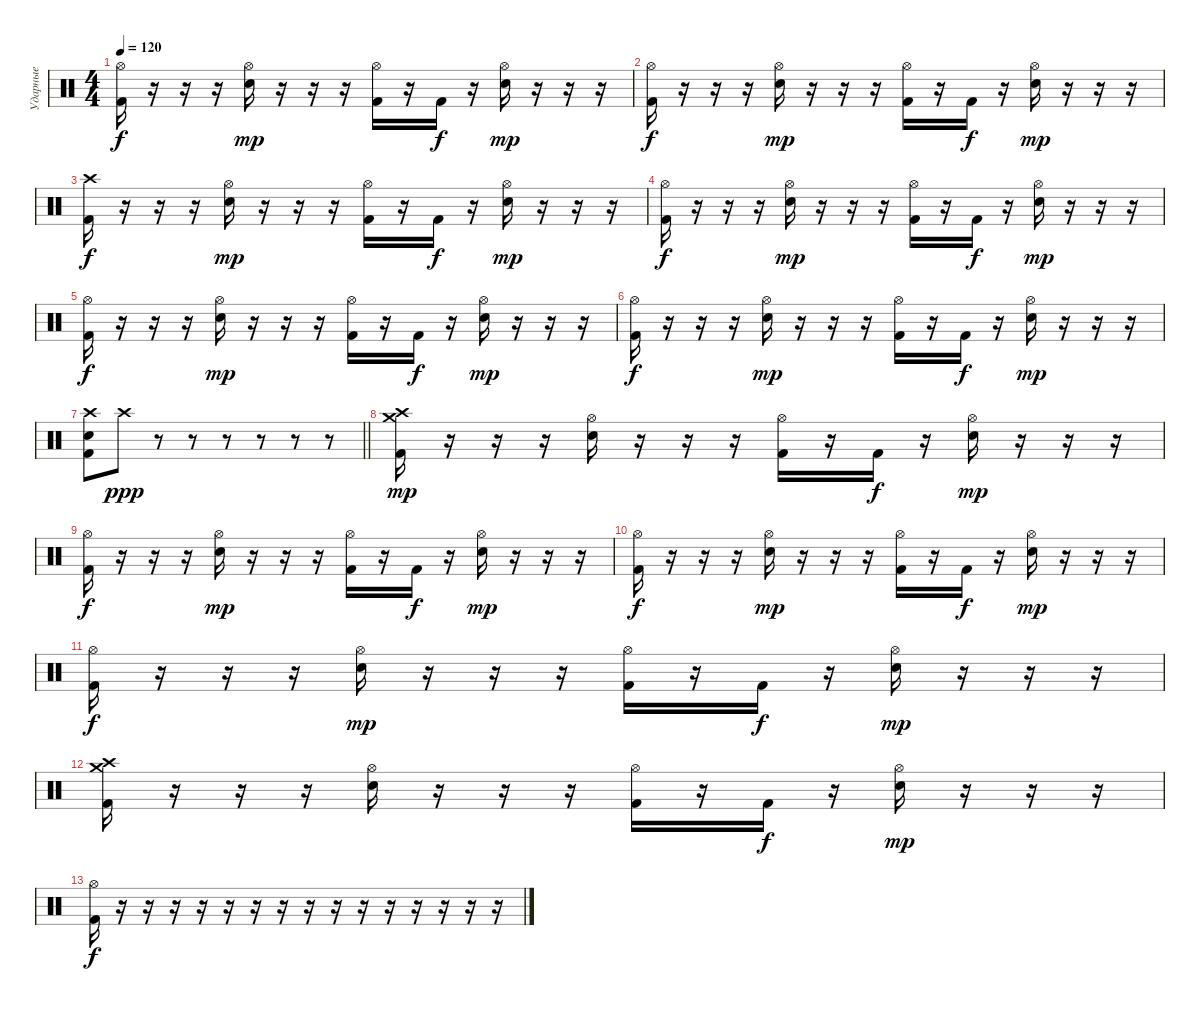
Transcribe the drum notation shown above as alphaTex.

\track ("Ударные" "Ударные") {instrument percussion}
\staff {score}
\articulation defaults
\ts (4 4)
\tempo 120
\clef neutral
\ks c
("Kick (hit) 2" "Hi-Hat (open)").16{dy f} r.16 r.16 r.16 ("Snare (hit) 2" "Hi-Hat (open)").16{dy mp} r.16 r.16 r.16 ("Kick (hit) 2" "Hi-Hat (open)").16 r.16 "Kick (hit) 2".16{dy f} r.16 ("Snare (hit) 2" "Hi-Hat (open)").16{dy mp} r.16 r.16 r.16 |
("Kick (hit) 2" "Hi-Hat (open)").16{dy f} r.16 r.16 r.16 ("Snare (hit) 2" "Hi-Hat (open)").16{dy mp} r.16 r.16 r.16 ("Kick (hit) 2" "Hi-Hat (open)").16 r.16 "Kick (hit) 2".16{dy f} r.16 ("Snare (hit) 2" "Hi-Hat (open)").16{dy mp} r.16 r.16 r.16 |
("Kick (hit) 2" "Crash high (hit)").16{dy f} r.16 r.16 r.16 ("Snare (hit) 2" "Hi-Hat (open)").16{dy mp} r.16 r.16 r.16 ("Kick (hit) 2" "Hi-Hat (open)").16 r.16 "Kick (hit) 2".16{dy f} r.16 ("Snare (hit) 2" "Hi-Hat (open)").16{dy mp} r.16 r.16 r.16 |
("Kick (hit) 2" "Hi-Hat (open)").16{dy f} r.16 r.16 r.16 ("Snare (hit) 2" "Hi-Hat (open)").16{dy mp} r.16 r.16 r.16 ("Kick (hit) 2" "Hi-Hat (open)").16 r.16 "Kick (hit) 2".16{dy f} r.16 ("Snare (hit) 2" "Hi-Hat (open)").16{dy mp} r.16 r.16 r.16 |
("Kick (hit) 2" "Hi-Hat (open)").16{dy f} r.16 r.16 r.16 ("Snare (hit) 2" "Hi-Hat (open)").16{dy mp} r.16 r.16 r.16 ("Kick (hit) 2" "Hi-Hat (open)").16 r.16 "Kick (hit) 2".16{dy f} r.16 ("Snare (hit) 2" "Hi-Hat (open)").16{dy mp} r.16 r.16 r.16 |
("Kick (hit) 2" "Hi-Hat (open)").16{dy f} r.16 r.16 r.16 ("Snare (hit) 2" "Hi-Hat (open)").16{dy mp} r.16 r.16 r.16 ("Kick (hit) 2" "Hi-Hat (open)").16 r.16 "Kick (hit) 2".16{dy f} r.16 ("Snare (hit) 2" "Hi-Hat (open)").16{dy mp} r.16 r.16 r.16 |
\barLineRight lightlight
("Crash high (hit)" "Snare (hit) 2" "Kick (hit) 2").8 "Crash high (hit)".8{dy ppp} r.8 r.8 r.8 r.8 r.8 r.8 |
("Kick (hit) 2" "Crash medium (hit)" "Crash high (hit)").16{dy mp} r.16 r.16 r.16 ("Snare (hit) 2" "Hi-Hat (open)").16 r.16 r.16 r.16 ("Kick (hit) 2" "Hi-Hat (open)").16 r.16 "Kick (hit) 2".16{dy f} r.16 ("Snare (hit) 2" "Hi-Hat (open)").16{dy mp} r.16 r.16 r.16 |
("Kick (hit) 2" "Hi-Hat (open)").16{dy f} r.16 r.16 r.16 ("Snare (hit) 2" "Hi-Hat (open)").16{dy mp} r.16 r.16 r.16 ("Kick (hit) 2" "Hi-Hat (open)").16 r.16 "Kick (hit) 2".16{dy f} r.16 ("Snare (hit) 2" "Hi-Hat (open)").16{dy mp} r.16 r.16 r.16 |
("Kick (hit) 2" "Hi-Hat (open)").16{dy f} r.16 r.16 r.16 ("Snare (hit) 2" "Hi-Hat (open)").16{dy mp} r.16 r.16 r.16 ("Kick (hit) 2" "Hi-Hat (open)").16 r.16 "Kick (hit) 2".16{dy f} r.16 ("Snare (hit) 2" "Hi-Hat (open)").16{dy mp} r.16 r.16 r.16 |
("Kick (hit) 2" "Hi-Hat (open)").16{dy f} r.16 r.16 r.16 ("Snare (hit) 2" "Hi-Hat (open)").16{dy mp} r.16 r.16 r.16 ("Kick (hit) 2" "Hi-Hat (open)").16 r.16 "Kick (hit) 2".16{dy f} r.16 ("Snare (hit) 2" "Hi-Hat (open)").16{dy mp} r.16 r.16 r.16 |
("Kick (hit) 2" "Crash medium (hit)" "Crash high (hit)").16 r.16 r.16 r.16 ("Snare (hit) 2" "Hi-Hat (open)").16 r.16 r.16 r.16 ("Kick (hit) 2" "Hi-Hat (open)").16 r.16 "Kick (hit) 2".16{dy f} r.16 ("Snare (hit) 2" "Hi-Hat (open)").16{dy mp} r.16 r.16 r.16 |
("Kick (hit) 2" "Hi-Hat (open)").16{dy f} r.16 r.16 r.16 r.16 r.16 r.16 r.16 r.16 r.16 r.16 r.16 r.16 r.16 r.16 r.16
